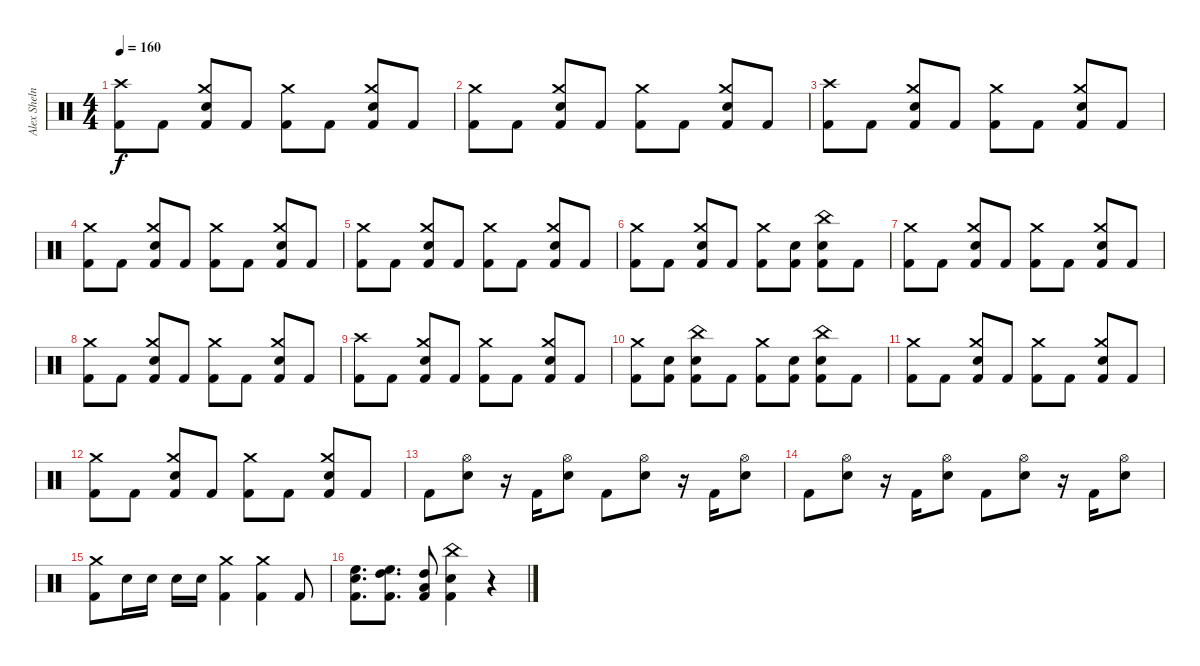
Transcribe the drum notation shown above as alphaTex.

\track ("Alex Shelnutt" "Alex Sheln") {instrument percussion}
\staff {score}
\articulation defaults
\ts (4 4)
\tempo 160
\clef neutral
\ks c
("Crash high (hit)" "Kick (hit) 2").8{dy f} "Kick (hit) 2".8 ("Crash medium (hit)" "Electric Snare (hit)" "Kick (hit) 2").8 "Kick (hit) 2".8 ("Crash medium (hit)" "Kick (hit) 2").8 "Kick (hit) 2".8 ("Crash medium (hit)" "Electric Snare (hit)" "Kick (hit) 2").8 "Kick (hit) 2".8 |
("Crash medium (hit)" "Kick (hit) 2").8 "Kick (hit) 2".8 ("Crash medium (hit)" "Electric Snare (hit)" "Kick (hit) 2").8 "Kick (hit) 2".8 ("Crash medium (hit)" "Kick (hit) 2").8 "Kick (hit) 2".8 ("Crash medium (hit)" "Electric Snare (hit)" "Kick (hit) 2").8 "Kick (hit) 2".8 |
("Crash high (hit)" "Kick (hit) 2").8 "Kick (hit) 2".8 ("Crash medium (hit)" "Electric Snare (hit)" "Kick (hit) 2").8 "Kick (hit) 2".8 ("Crash medium (hit)" "Kick (hit) 2").8 "Kick (hit) 2".8 ("Crash medium (hit)" "Electric Snare (hit)" "Kick (hit) 2").8 "Kick (hit) 2".8 |
("Crash medium (hit)" "Kick (hit) 2").8 "Kick (hit) 2".8 ("Crash medium (hit)" "Electric Snare (hit)" "Kick (hit) 2").8 "Kick (hit) 2".8 ("Crash medium (hit)" "Kick (hit) 2").8 "Kick (hit) 2".8 ("Crash medium (hit)" "Electric Snare (hit)" "Kick (hit) 2").8 "Kick (hit) 2".8 |
("Crash medium (hit)" "Kick (hit) 2").8 "Kick (hit) 2".8 ("Crash medium (hit)" "Electric Snare (hit)" "Kick (hit) 2").8 "Kick (hit) 2".8 ("Crash medium (hit)" "Kick (hit) 2").8 "Kick (hit) 2".8 ("Crash medium (hit)" "Electric Snare (hit)" "Kick (hit) 2").8 "Kick (hit) 2".8 |
("Crash medium (hit)" "Kick (hit) 2").8 "Kick (hit) 2".8 ("Crash medium (hit)" "Electric Snare (hit)" "Kick (hit) 2").8 "Kick (hit) 2".8 ("Crash medium (hit)" "Kick (hit) 2").8 ("Electric Snare (hit)" "Kick (hit) 2").8 ("China (hit)" "Electric Snare (hit)" "Kick (hit) 2").8 "Kick (hit) 2".8 |
("Crash medium (hit)" "Kick (hit) 2").8 "Kick (hit) 2".8 ("Crash medium (hit)" "Electric Snare (hit)" "Kick (hit) 2").8 "Kick (hit) 2".8 ("Crash medium (hit)" "Kick (hit) 2").8 "Kick (hit) 2".8 ("Crash medium (hit)" "Electric Snare (hit)" "Kick (hit) 2").8 "Kick (hit) 2".8 |
("Crash medium (hit)" "Kick (hit) 2").8 "Kick (hit) 2".8 ("Crash medium (hit)" "Electric Snare (hit)" "Kick (hit) 2").8 "Kick (hit) 2".8 ("Crash medium (hit)" "Kick (hit) 2").8 "Kick (hit) 2".8 ("Crash medium (hit)" "Electric Snare (hit)" "Kick (hit) 2").8 "Kick (hit) 2".8 |
("Crash high (hit)" "Kick (hit) 2").8 "Kick (hit) 2".8 ("Crash medium (hit)" "Electric Snare (hit)" "Kick (hit) 2").8 "Kick (hit) 2".8 ("Crash medium (hit)" "Kick (hit) 2").8 "Kick (hit) 2".8 ("Crash medium (hit)" "Electric Snare (hit)" "Kick (hit) 2").8 "Kick (hit) 2".8 |
("Crash medium (hit)" "Kick (hit) 2").8 ("Electric Snare (hit)" "Kick (hit) 2").8 ("China (hit)" "Electric Snare (hit)" "Kick (hit) 2").8 "Kick (hit) 2".8 ("Crash medium (hit)" "Kick (hit) 2").8 ("Electric Snare (hit)" "Kick (hit) 2").8 ("China (hit)" "Electric Snare (hit)" "Kick (hit) 2").8 "Kick (hit) 2".8 |
("Crash medium (hit)" "Kick (hit) 2").8 "Kick (hit) 2".8 ("Crash medium (hit)" "Electric Snare (hit)" "Kick (hit) 2").8 "Kick (hit) 2".8 ("Crash medium (hit)" "Kick (hit) 2").8 "Kick (hit) 2".8 ("Crash medium (hit)" "Electric Snare (hit)" "Kick (hit) 2").8 "Kick (hit) 2".8 |
("Crash medium (hit)" "Kick (hit) 2").8 "Kick (hit) 2".8 ("Crash medium (hit)" "Electric Snare (hit)" "Kick (hit) 2").8 "Kick (hit) 2".8 ("Crash medium (hit)" "Kick (hit) 2").8 "Kick (hit) 2".8 ("Crash medium (hit)" "Electric Snare (hit)" "Kick (hit) 2").8 "Kick (hit) 2".8 |
"Kick (hit) 2".8 ("Hi-Hat (open)" "Electric Snare (hit)").8 r.16 "Kick (hit) 2".16 ("Hi-Hat (open)" "Electric Snare (hit)").8 "Kick (hit) 2".8 ("Hi-Hat (open)" "Electric Snare (hit)").8 r.16 "Kick (hit) 2".16 ("Hi-Hat (open)" "Electric Snare (hit)").8 |
"Kick (hit) 2".8 ("Hi-Hat (open)" "Electric Snare (hit)").8 r.16 "Kick (hit) 2".16 ("Hi-Hat (open)" "Electric Snare (hit)").8 "Kick (hit) 2".8 ("Hi-Hat (open)" "Electric Snare (hit)").8 r.16 "Kick (hit) 2".16 ("Hi-Hat (open)" "Electric Snare (hit)").8 |
("Crash medium (hit)" "Kick (hit) 2").8 "Electric Snare (hit)".16 "Electric Snare (hit)".16 "Electric Snare (hit)".16 "Electric Snare (hit)".16 ("Crash medium (hit)" "Kick (hit) 2").4 ("Crash medium (hit)" "Kick (hit) 2").4 "Kick (hit) 2".8 |
("High Floor Tom (hit)" "Electric Snare (hit)" "Kick (hit) 2").8{d} ("High Tom (hit)" "High Floor Tom (hit)" "Kick (hit) 2").8{d} ("Low Floor Tom (hit)" "High Tom (hit)" "Kick (hit) 2").8 ("China (hit)" "Electric Snare (hit)" "Kick (hit) 2").4 r.4
